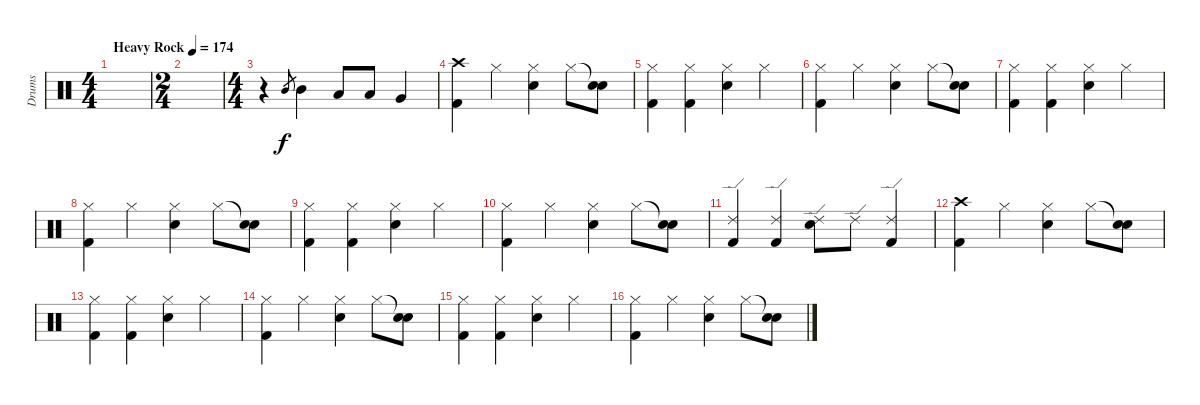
\track ("Drums" "Drums") {instrument percussion}
\staff {score}
\articulation defaults
\ts (4 4)
\tempo (174 "Heavy Rock")
\clef neutral
\ks c
|
\ts (2 4)
|
\ts (4 4)
r.4 "Mid Tom (hit)".8{gr} "Mid Tom (hit)".4 "Low Tom (hit)".8 "Low Tom (hit)".8 "Very Low Tom (hit)".4 |
("Crash high (hit)" "Kick (hit) 2").4 "Hi-Hat (closed)".4 ("Hi-Hat (closed)" "Electric Snare (hit)").4 "Hi-Hat (closed)".8 ("Snare (hit)"{t} "Electric Snare (hit)").8 |
("Hi-Hat (closed)" "Kick (hit) 2").4 ("Hi-Hat (closed)" "Kick (hit) 2").4 ("Hi-Hat (closed)" "Electric Snare (hit)").4 "Hi-Hat (closed)".4 |
("Hi-Hat (closed)" "Kick (hit) 2").4 "Hi-Hat (closed)".4 ("Hi-Hat (closed)" "Electric Snare (hit)").4 "Hi-Hat (closed)".8 ("Snare (hit)"{t} "Electric Snare (hit)").8 |
("Hi-Hat (closed)" "Kick (hit) 2").4 ("Hi-Hat (closed)" "Kick (hit) 2").4 ("Hi-Hat (closed)" "Electric Snare (hit)").4 "Hi-Hat (closed)".4 |
("Hi-Hat (closed)" "Kick (hit) 2").4 "Hi-Hat (closed)".4 ("Hi-Hat (closed)" "Electric Snare (hit)").4 "Hi-Hat (closed)".8 ("Snare (hit)"{t} "Electric Snare (hit)").8 |
("Hi-Hat (closed)" "Kick (hit) 2").4 ("Hi-Hat (closed)" "Kick (hit) 2").4 ("Hi-Hat (closed)" "Electric Snare (hit)").4 "Hi-Hat (closed)".4 |
("Hi-Hat (closed)" "Kick (hit) 2").4 "Hi-Hat (closed)".4 ("Hi-Hat (closed)" "Electric Snare (hit)").4 "Hi-Hat (closed)".8 ("Snare (hit)"{t} "Electric Snare (hit)").8 |
("Ride (edge) 2" "Kick (hit) 2").4 ("Ride (edge) 2" "Kick (hit) 2").4 ("Ride (edge) 2" "Electric Snare (hit)").8 "Ride (edge) 2".8 ("Ride (edge) 2" "Kick (hit) 2").4 |
("Crash high (hit)" "Kick (hit) 2").4 "Hi-Hat (closed)".4 ("Hi-Hat (closed)" "Electric Snare (hit)").4 "Hi-Hat (closed)".8 ("Snare (hit)"{t} "Electric Snare (hit)").8 |
("Hi-Hat (closed)" "Kick (hit) 2").4 ("Hi-Hat (closed)" "Kick (hit) 2").4 ("Hi-Hat (closed)" "Electric Snare (hit)").4 "Hi-Hat (closed)".4 |
("Hi-Hat (closed)" "Kick (hit) 2").4 "Hi-Hat (closed)".4 ("Hi-Hat (closed)" "Electric Snare (hit)").4 "Hi-Hat (closed)".8 ("Snare (hit)"{t} "Electric Snare (hit)").8 |
("Hi-Hat (closed)" "Kick (hit) 2").4 ("Hi-Hat (closed)" "Kick (hit) 2").4 ("Hi-Hat (closed)" "Electric Snare (hit)").4 "Hi-Hat (closed)".4 |
("Hi-Hat (closed)" "Kick (hit) 2").4 "Hi-Hat (closed)".4 ("Hi-Hat (closed)" "Electric Snare (hit)").4 "Hi-Hat (closed)".8 ("Snare (hit)"{t} "Electric Snare (hit)").8
